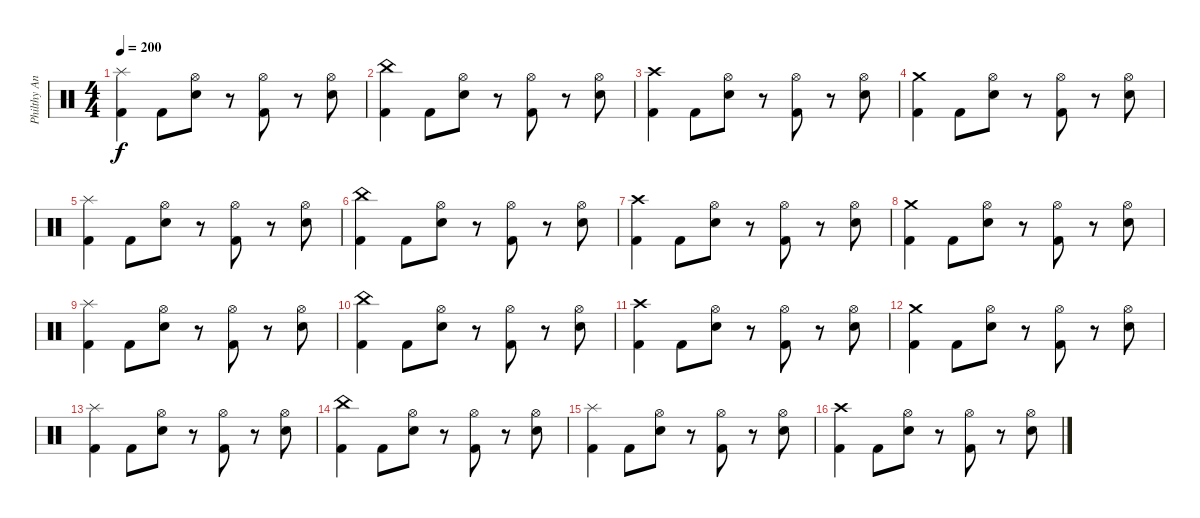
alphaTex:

\track ("Philthy Animal Taylor" "Philthy An") {instrument percussion}
\staff {score}
\articulation defaults
\ts (4 4)
\tempo 200
\clef neutral
\ks c
("Splash (hit)" "Kick (hit) 2").4{dy f} "Kick (hit) 2".8 ("Hi-Hat (open)" "Electric Snare (hit)").8 r.8 ("Hi-Hat (open)" "Kick (hit) 2").8 r.8 ("Hi-Hat (open)" "Electric Snare (hit)").8 |
("China (hit)" "Kick (hit) 2").4 "Kick (hit) 2".8 ("Hi-Hat (open)" "Electric Snare (hit)").8 r.8 ("Hi-Hat (open)" "Kick (hit) 2").8 r.8 ("Hi-Hat (open)" "Electric Snare (hit)").8 |
("Crash high (hit)" "Kick (hit) 2").4 "Kick (hit) 2".8 ("Hi-Hat (open)" "Electric Snare (hit)").8 r.8 ("Hi-Hat (open)" "Kick (hit) 2").8 r.8 ("Hi-Hat (open)" "Electric Snare (hit)").8 |
("Crash medium (hit)" "Kick (hit) 2").4 "Kick (hit) 2".8 ("Hi-Hat (open)" "Electric Snare (hit)").8 r.8 ("Hi-Hat (open)" "Kick (hit) 2").8 r.8 ("Hi-Hat (open)" "Electric Snare (hit)").8 |
("Splash (hit)" "Kick (hit) 2").4 "Kick (hit) 2".8 ("Hi-Hat (open)" "Electric Snare (hit)").8 r.8 ("Hi-Hat (open)" "Kick (hit) 2").8 r.8 ("Hi-Hat (open)" "Electric Snare (hit)").8 |
("China (hit)" "Kick (hit) 2").4 "Kick (hit) 2".8 ("Hi-Hat (open)" "Electric Snare (hit)").8 r.8 ("Hi-Hat (open)" "Kick (hit) 2").8 r.8 ("Hi-Hat (open)" "Electric Snare (hit)").8 |
("Crash high (hit)" "Kick (hit) 2").4 "Kick (hit) 2".8 ("Hi-Hat (open)" "Electric Snare (hit)").8 r.8 ("Hi-Hat (open)" "Kick (hit) 2").8 r.8 ("Hi-Hat (open)" "Electric Snare (hit)").8 |
("Crash medium (hit)" "Kick (hit) 2").4 "Kick (hit) 2".8 ("Hi-Hat (open)" "Electric Snare (hit)").8 r.8 ("Hi-Hat (open)" "Kick (hit) 2").8 r.8 ("Hi-Hat (open)" "Electric Snare (hit)").8 |
("Splash (hit)" "Kick (hit) 2").4 "Kick (hit) 2".8 ("Hi-Hat (open)" "Electric Snare (hit)").8 r.8 ("Hi-Hat (open)" "Kick (hit) 2").8 r.8 ("Hi-Hat (open)" "Electric Snare (hit)").8 |
("China (hit)" "Kick (hit) 2").4 "Kick (hit) 2".8 ("Hi-Hat (open)" "Electric Snare (hit)").8 r.8 ("Hi-Hat (open)" "Kick (hit) 2").8 r.8 ("Hi-Hat (open)" "Electric Snare (hit)").8 |
("Crash high (hit)" "Kick (hit) 2").4 "Kick (hit) 2".8 ("Hi-Hat (open)" "Electric Snare (hit)").8 r.8 ("Hi-Hat (open)" "Kick (hit) 2").8 r.8 ("Hi-Hat (open)" "Electric Snare (hit)").8 |
("Crash medium (hit)" "Kick (hit) 2").4 "Kick (hit) 2".8 ("Hi-Hat (open)" "Electric Snare (hit)").8 r.8 ("Hi-Hat (open)" "Kick (hit) 2").8 r.8 ("Hi-Hat (open)" "Electric Snare (hit)").8 |
("Splash (hit)" "Kick (hit) 2").4 "Kick (hit) 2".8 ("Hi-Hat (open)" "Electric Snare (hit)").8 r.8 ("Hi-Hat (open)" "Kick (hit) 2").8 r.8 ("Hi-Hat (open)" "Electric Snare (hit)").8 |
("China (hit)" "Kick (hit) 2").4 "Kick (hit) 2".8 ("Hi-Hat (open)" "Electric Snare (hit)").8 r.8 ("Hi-Hat (open)" "Kick (hit) 2").8 r.8 ("Hi-Hat (open)" "Electric Snare (hit)").8 |
("Splash (hit)" "Kick (hit) 2").4 "Kick (hit) 2".8 ("Hi-Hat (open)" "Electric Snare (hit)").8 r.8 ("Hi-Hat (open)" "Kick (hit) 2").8 r.8 ("Hi-Hat (open)" "Electric Snare (hit)").8 |
("Crash high (hit)" "Kick (hit) 2").4 "Kick (hit) 2".8 ("Hi-Hat (open)" "Electric Snare (hit)").8 r.8 ("Hi-Hat (open)" "Kick (hit) 2").8 r.8 ("Hi-Hat (open)" "Electric Snare (hit)").8
